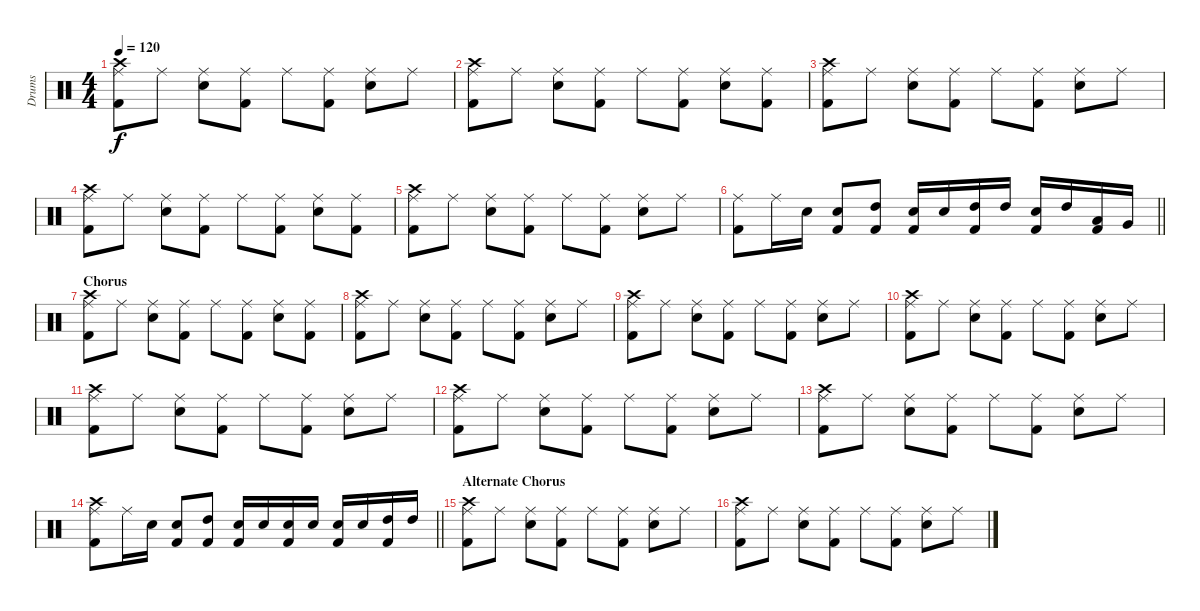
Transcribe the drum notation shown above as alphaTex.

\track ("Drums" "Drums") {instrument percussion}
\staff {score}
\articulation defaults
\ts (4 4)
\tempo 120
\clef neutral
\ks c
("Kick (hit) 2" "Ride (middle)" "Crash high (hit)").8{dy f} "Ride (middle)".8 ("Electric Snare (hit)" "Ride (middle)").8 ("Kick (hit) 2" "Ride (middle)").8 "Ride (middle)".8 ("Kick (hit) 2" "Ride (middle)").8 ("Electric Snare (hit)" "Ride (middle)").8 "Ride (middle)".8 |
("Kick (hit) 2" "Ride (middle)" "Crash high (hit)").8 "Ride (middle)".8 ("Electric Snare (hit)" "Ride (middle)").8 ("Kick (hit) 2" "Ride (middle)").8 "Ride (middle)".8 ("Kick (hit) 2" "Ride (middle)").8 ("Electric Snare (hit)" "Ride (middle)").8 ("Kick (hit) 2" "Ride (middle)").8 |
("Kick (hit) 2" "Ride (middle)" "Crash high (hit)").8 "Ride (middle)".8 ("Electric Snare (hit)" "Ride (middle)").8 ("Kick (hit) 2" "Ride (middle)").8 "Ride (middle)".8 ("Kick (hit) 2" "Ride (middle)").8 ("Electric Snare (hit)" "Ride (middle)").8 "Ride (middle)".8 |
("Kick (hit) 2" "Ride (middle)" "Crash high (hit)").8 "Ride (middle)".8 ("Electric Snare (hit)" "Ride (middle)").8 ("Kick (hit) 2" "Ride (middle)").8 "Ride (middle)".8 ("Kick (hit) 2" "Ride (middle)").8 ("Electric Snare (hit)" "Ride (middle)").8 ("Kick (hit) 2" "Ride (middle)").8 |
("Kick (hit) 2" "Ride (middle)" "Crash high (hit)").8 "Ride (middle)".8 ("Electric Snare (hit)" "Ride (middle)").8 ("Kick (hit) 2" "Ride (middle)").8 "Ride (middle)".8 ("Kick (hit) 2" "Ride (middle)").8 ("Electric Snare (hit)" "Ride (middle)").8 "Ride (middle)".8 |
\barLineRight lightlight
("Kick (hit) 2" "Ride (middle)").8 "Ride (middle)".16 "Electric Snare (hit)".16 ("Kick (hit) 2" "Electric Snare (hit)").8 ("Kick (hit) 2" "High Tom (hit)").8 ("Kick (hit) 2" "Electric Snare (hit)").16 "Electric Snare (hit)".16 ("Kick (hit) 2" "High Tom (hit)").16 "High Tom (hit)".16 ("Kick (hit) 2" "Electric Snare (hit)").16 "High Tom (hit)".16 ("Kick (hit) 2" "Low Tom (hit)").16 "Very Low Tom (hit)".16 |
\section ("" "Chorus")
("Kick (hit) 2" "Ride (middle)" "Crash high (hit)").8 "Ride (middle)".8 ("Electric Snare (hit)" "Ride (middle)").8 ("Kick (hit) 2" "Ride (middle)").8 "Ride (middle)".8 ("Kick (hit) 2" "Ride (middle)").8 ("Electric Snare (hit)" "Ride (middle)").8 ("Kick (hit) 2" "Ride (middle)").8 |
("Kick (hit) 2" "Ride (middle)" "Crash high (hit)").8 "Ride (middle)".8 ("Electric Snare (hit)" "Ride (middle)").8 ("Kick (hit) 2" "Ride (middle)").8 "Ride (middle)".8 ("Kick (hit) 2" "Ride (middle)").8 ("Electric Snare (hit)" "Ride (middle)").8 "Ride (middle)".8 |
("Kick (hit) 2" "Ride (middle)" "Crash high (hit)").8 "Ride (middle)".8 ("Electric Snare (hit)" "Ride (middle)").8 ("Kick (hit) 2" "Ride (middle)").8 "Ride (middle)".8 ("Kick (hit) 2" "Ride (middle)").8 ("Electric Snare (hit)" "Ride (middle)").8 "Ride (middle)".8 |
("Kick (hit) 2" "Ride (middle)" "Crash high (hit)").8 "Ride (middle)".8 ("Electric Snare (hit)" "Ride (middle)").8 ("Kick (hit) 2" "Ride (middle)").8 "Ride (middle)".8 ("Kick (hit) 2" "Ride (middle)").8 ("Electric Snare (hit)" "Ride (middle)").8 "Ride (middle)".8 |
("Kick (hit) 2" "Ride (middle)" "Crash high (hit)").8 "Ride (middle)".8 ("Electric Snare (hit)" "Ride (middle)").8 ("Kick (hit) 2" "Ride (middle)").8 "Ride (middle)".8 ("Kick (hit) 2" "Ride (middle)").8 ("Electric Snare (hit)" "Ride (middle)").8 "Ride (middle)".8 |
("Kick (hit) 2" "Ride (middle)" "Crash high (hit)").8 "Ride (middle)".8 ("Electric Snare (hit)" "Ride (middle)").8 ("Kick (hit) 2" "Ride (middle)").8 "Ride (middle)".8 ("Kick (hit) 2" "Ride (middle)").8 ("Electric Snare (hit)" "Ride (middle)").8 "Ride (middle)".8 |
("Kick (hit) 2" "Ride (middle)" "Crash high (hit)").8 "Ride (middle)".8 ("Electric Snare (hit)" "Ride (middle)").8 ("Kick (hit) 2" "Ride (middle)").8 "Ride (middle)".8 ("Kick (hit) 2" "Ride (middle)").8 ("Electric Snare (hit)" "Ride (middle)").8 "Ride (middle)".8 |
\barLineRight lightlight
("Kick (hit) 2" "Ride (middle)" "Crash high (hit)").8 "Ride (middle)".16 "Electric Snare (hit)".16 ("Kick (hit) 2" "Electric Snare (hit)").8 ("Kick (hit) 2" "High Tom (hit)").8 ("Kick (hit) 2" "Electric Snare (hit)").16 "Electric Snare (hit)".16 ("Kick (hit) 2" "Electric Snare (hit)").16 "Electric Snare (hit)".16 ("Kick (hit) 2" "Electric Snare (hit)").16 "Electric Snare (hit)".16 ("Kick (hit) 2" "High Tom (hit)").16 "High Tom (hit)".16 |
\section ("" "Alternate Chorus")
("Kick (hit) 2" "Ride (middle)" "Crash high (hit)").8 "Ride (middle)".8 ("Electric Snare (hit)" "Ride (middle)").8 ("Kick (hit) 2" "Ride (middle)").8 "Ride (middle)".8 ("Kick (hit) 2" "Ride (middle)").8 ("Electric Snare (hit)" "Ride (middle)").8 "Ride (middle)".8 |
("Kick (hit) 2" "Ride (middle)" "Crash high (hit)").8 "Ride (middle)".8 ("Electric Snare (hit)" "Ride (middle)").8 ("Kick (hit) 2" "Ride (middle)").8 "Ride (middle)".8 ("Kick (hit) 2" "Ride (middle)").8 ("Electric Snare (hit)" "Ride (middle)").8 "Ride (middle)".8
